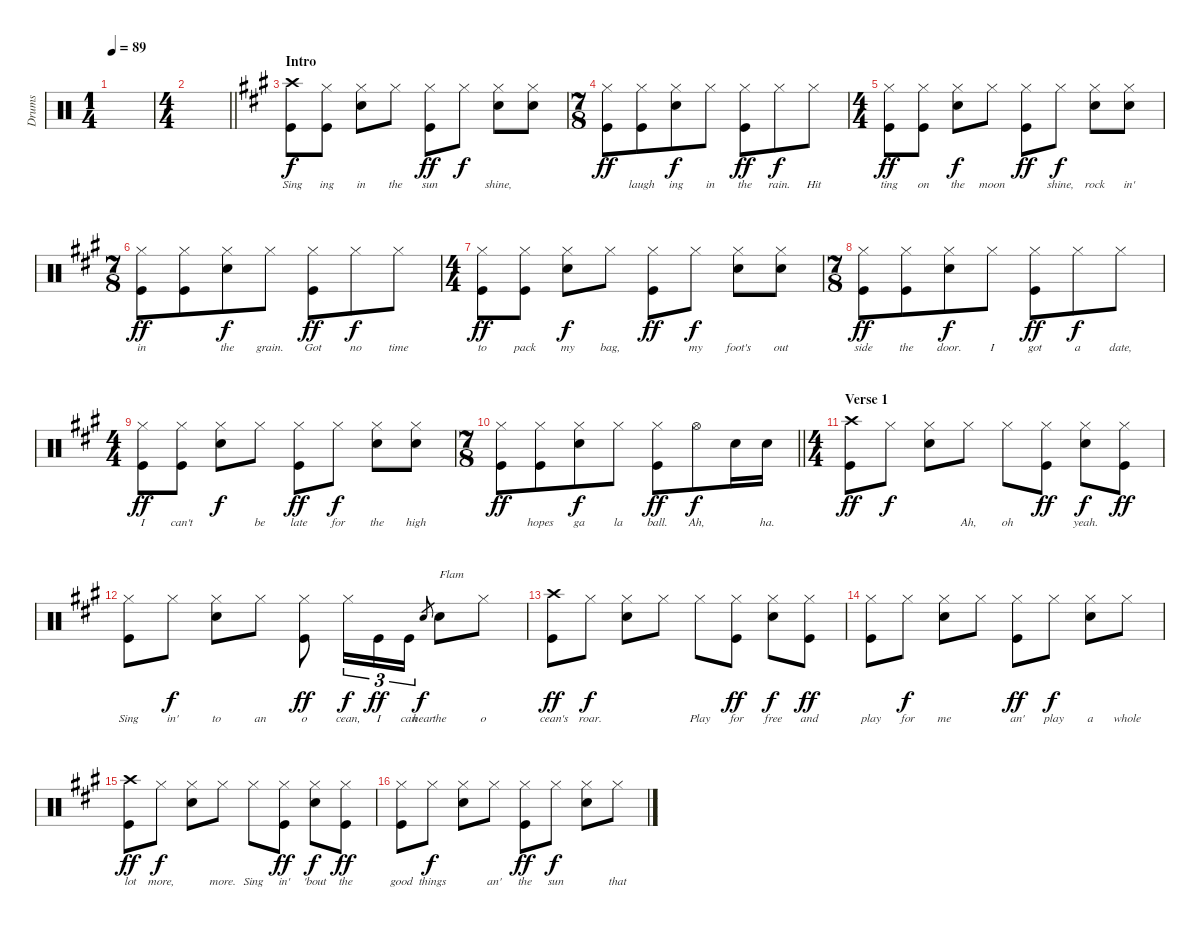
\track ("Drums" "Drums") {instrument percussion}
\staff {score}
\articulation defaults
\ts (1 4)
\tempo 89
\clef neutral
\ks c
|
\ts (4 4)
\barLineRight lightlight
|
\section ("" "Intro")
\ks a
("Crash high (hit)" "Kick (hit)").8{lyrics (0 "Sing") lyrics (1 "") lyrics (2 "") lyrics (3 "") lyrics (4 "")} ("Hi-Hat (closed)" "Kick (hit)").8{lyrics (0 "ing") lyrics (1 "") lyrics (2 "") lyrics (3 "") lyrics (4 "")} ("Hi-Hat (closed)" "Snare (hit) 2").8{lyrics (0 "in") lyrics (1 "") lyrics (2 "") lyrics (3 "") lyrics (4 "") dy f} "Hi-Hat (closed)".8{lyrics (0 "the") lyrics (1 "") lyrics (2 "") lyrics (3 "") lyrics (4 "")} ("Hi-Hat (closed)" "Kick (hit)").8{lyrics (0 "sun") lyrics (1 "") lyrics (2 "") lyrics (3 "") lyrics (4 "") dy ff} "Hi-Hat (closed)".8{lyrics (0 "") lyrics (1 "") lyrics (2 "") lyrics (3 "") lyrics (4 "") dy f} ("Hi-Hat (closed)" "Snare (hit) 2").8{lyrics (0 "shine,") lyrics (1 "") lyrics (2 "") lyrics (3 "") lyrics (4 "")} ("Hi-Hat (closed)" "Snare (hit) 2").8{lyrics (0 "") lyrics (1 "") lyrics (2 "") lyrics (3 "") lyrics (4 "")} |
\ts (7 8)
("Hi-Hat (closed)" "Kick (hit)").8{lyrics (0 "") lyrics (1 "") lyrics (2 "") lyrics (3 "") lyrics (4 "") dy ff} ("Hi-Hat (closed)" "Kick (hit)").8{lyrics (0 "laugh") lyrics (1 "") lyrics (2 "") lyrics (3 "") lyrics (4 "")} ("Hi-Hat (closed)" "Snare (hit) 2").8{lyrics (0 "ing") lyrics (1 "") lyrics (2 "") lyrics (3 "") lyrics (4 "") dy f} "Hi-Hat (closed)".8{lyrics (0 "in") lyrics (1 "") lyrics (2 "") lyrics (3 "") lyrics (4 "")} ("Hi-Hat (closed)" "Kick (hit)").8{lyrics (0 "the") lyrics (1 "") lyrics (2 "") lyrics (3 "") lyrics (4 "") dy ff} "Hi-Hat (closed)".8{lyrics (0 "rain.") lyrics (1 "") lyrics (2 "") lyrics (3 "") lyrics (4 "") dy f} "Hi-Hat (closed)".8{lyrics (0 "Hit") lyrics (1 "") lyrics (2 "") lyrics (3 "") lyrics (4 "")} |
\ts (4 4)
("Hi-Hat (closed)" "Kick (hit)").8{lyrics (0 "ting") lyrics (1 "") lyrics (2 "") lyrics (3 "") lyrics (4 "") dy ff} ("Hi-Hat (closed)" "Kick (hit)").8{lyrics (0 "on") lyrics (1 "") lyrics (2 "") lyrics (3 "") lyrics (4 "")} ("Hi-Hat (closed)" "Snare (hit) 2").8{lyrics (0 "the") lyrics (1 "") lyrics (2 "") lyrics (3 "") lyrics (4 "") dy f} "Hi-Hat (closed)".8{lyrics (0 "moon") lyrics (1 "") lyrics (2 "") lyrics (3 "") lyrics (4 "")} ("Hi-Hat (closed)" "Kick (hit)").8{lyrics (0 "") lyrics (1 "") lyrics (2 "") lyrics (3 "") lyrics (4 "") dy ff} "Hi-Hat (closed)".8{lyrics (0 "shine,") lyrics (1 "") lyrics (2 "") lyrics (3 "") lyrics (4 "") dy f} ("Hi-Hat (closed)" "Snare (hit) 2").8{lyrics (0 "rock") lyrics (1 "") lyrics (2 "") lyrics (3 "") lyrics (4 "")} ("Hi-Hat (closed)" "Snare (hit) 2").8{lyrics (0 "in'") lyrics (1 "") lyrics (2 "") lyrics (3 "") lyrics (4 "")} |
\ts (7 8)
("Hi-Hat (closed)" "Kick (hit)").8{lyrics (0 "in") lyrics (1 "") lyrics (2 "") lyrics (3 "") lyrics (4 "") dy ff} ("Hi-Hat (closed)" "Kick (hit)").8{lyrics (0 "") lyrics (1 "") lyrics (2 "") lyrics (3 "") lyrics (4 "")} ("Hi-Hat (closed)" "Snare (hit) 2").8{lyrics (0 "the") lyrics (1 "") lyrics (2 "") lyrics (3 "") lyrics (4 "") dy f} "Hi-Hat (closed)".8{lyrics (0 "grain.") lyrics (1 "") lyrics (2 "") lyrics (3 "") lyrics (4 "")} ("Hi-Hat (closed)" "Kick (hit)").8{lyrics (0 "Got") lyrics (1 "") lyrics (2 "") lyrics (3 "") lyrics (4 "") dy ff} "Hi-Hat (closed)".8{lyrics (0 "no") lyrics (1 "") lyrics (2 "") lyrics (3 "") lyrics (4 "") dy f} "Hi-Hat (closed)".8{lyrics (0 "time") lyrics (1 "") lyrics (2 "") lyrics (3 "") lyrics (4 "")} |
\ts (4 4)
("Hi-Hat (closed)" "Kick (hit)").8{lyrics (0 "to") lyrics (1 "") lyrics (2 "") lyrics (3 "") lyrics (4 "") dy ff} ("Hi-Hat (closed)" "Kick (hit)").8{lyrics (0 "pack") lyrics (1 "") lyrics (2 "") lyrics (3 "") lyrics (4 "")} ("Hi-Hat (closed)" "Snare (hit) 2").8{lyrics (0 "my") lyrics (1 "") lyrics (2 "") lyrics (3 "") lyrics (4 "") dy f} "Hi-Hat (closed)".8{lyrics (0 "bag,") lyrics (1 "") lyrics (2 "") lyrics (3 "") lyrics (4 "")} ("Hi-Hat (closed)" "Kick (hit)").8{lyrics (0 "") lyrics (1 "") lyrics (2 "") lyrics (3 "") lyrics (4 "") dy ff} "Hi-Hat (closed)".8{lyrics (0 "my") lyrics (1 "") lyrics (2 "") lyrics (3 "") lyrics (4 "") dy f} ("Hi-Hat (closed)" "Snare (hit) 2").8{lyrics (0 "foot's") lyrics (1 "") lyrics (2 "") lyrics (3 "") lyrics (4 "")} ("Hi-Hat (closed)" "Snare (hit) 2").8{lyrics (0 "out") lyrics (1 "") lyrics (2 "") lyrics (3 "") lyrics (4 "")} |
\ts (7 8)
("Hi-Hat (closed)" "Kick (hit)").8{lyrics (0 "side") lyrics (1 "") lyrics (2 "") lyrics (3 "") lyrics (4 "") dy ff} ("Hi-Hat (closed)" "Kick (hit)").8{lyrics (0 "the") lyrics (1 "") lyrics (2 "") lyrics (3 "") lyrics (4 "")} ("Hi-Hat (closed)" "Snare (hit) 2").8{lyrics (0 "door.") lyrics (1 "") lyrics (2 "") lyrics (3 "") lyrics (4 "") dy f} "Hi-Hat (closed)".8{lyrics (0 "I") lyrics (1 "") lyrics (2 "") lyrics (3 "") lyrics (4 "")} ("Hi-Hat (closed)" "Kick (hit)").8{lyrics (0 "got") lyrics (1 "") lyrics (2 "") lyrics (3 "") lyrics (4 "") dy ff} "Hi-Hat (closed)".8{lyrics (0 "a") lyrics (1 "") lyrics (2 "") lyrics (3 "") lyrics (4 "") dy f} "Hi-Hat (closed)".8{lyrics (0 "date,") lyrics (1 "") lyrics (2 "") lyrics (3 "") lyrics (4 "")} |
\ts (4 4)
("Hi-Hat (closed)" "Kick (hit)").8{lyrics (0 "I") lyrics (1 "") lyrics (2 "") lyrics (3 "") lyrics (4 "") dy ff} ("Hi-Hat (closed)" "Kick (hit)").8{lyrics (0 "can't") lyrics (1 "") lyrics (2 "") lyrics (3 "") lyrics (4 "")} ("Hi-Hat (closed)" "Snare (hit) 2").8{lyrics (0 "") lyrics (1 "") lyrics (2 "") lyrics (3 "") lyrics (4 "") dy f} "Hi-Hat (closed)".8{lyrics (0 "be") lyrics (1 "") lyrics (2 "") lyrics (3 "") lyrics (4 "")} ("Hi-Hat (closed)" "Kick (hit)").8{lyrics (0 "late") lyrics (1 "") lyrics (2 "") lyrics (3 "") lyrics (4 "") dy ff} "Hi-Hat (closed)".8{lyrics (0 "for") lyrics (1 "") lyrics (2 "") lyrics (3 "") lyrics (4 "") dy f} ("Hi-Hat (closed)" "Snare (hit) 2").8{lyrics (0 "the") lyrics (1 "") lyrics (2 "") lyrics (3 "") lyrics (4 "")} ("Hi-Hat (closed)" "Snare (hit) 2").8{lyrics (0 "high") lyrics (1 "") lyrics (2 "") lyrics (3 "") lyrics (4 "")} |
\ts (7 8)
\barLineRight lightlight
("Hi-Hat (closed)" "Kick (hit)").8{lyrics (0 "") lyrics (1 "") lyrics (2 "") lyrics (3 "") lyrics (4 "") dy ff} ("Hi-Hat (closed)" "Kick (hit)").8{lyrics (0 "hopes") lyrics (1 "") lyrics (2 "") lyrics (3 "") lyrics (4 "")} ("Hi-Hat (closed)" "Snare (hit) 2").8{lyrics (0 "ga") lyrics (1 "") lyrics (2 "") lyrics (3 "") lyrics (4 "") dy f} "Hi-Hat (closed)".8{lyrics (0 "la") lyrics (1 "") lyrics (2 "") lyrics (3 "") lyrics (4 "")} ("Hi-Hat (closed)" "Kick (hit)").8{lyrics (0 "ball.") lyrics (1 "") lyrics (2 "") lyrics (3 "") lyrics (4 "") dy ff} "Hi-Hat (open)".8{lyrics (0 "Ah,") lyrics (1 "") lyrics (2 "") lyrics (3 "") lyrics (4 "") dy f} "Snare (hit) 2".16{lyrics (0 "") lyrics (1 "") lyrics (2 "") lyrics (3 "") lyrics (4 "")} "Snare (hit) 2".16{lyrics (0 "ha.") lyrics (1 "") lyrics (2 "") lyrics (3 "") lyrics (4 "")} |
\ts (4 4)
\section ("" "Verse 1")
("Crash high (hit)" "Kick (hit)").8{lyrics (0 "") lyrics (1 "") lyrics (2 "") lyrics (3 "") lyrics (4 "") dy ff} "Hi-Hat (closed)".8{lyrics (0 "") lyrics (1 "") lyrics (2 "") lyrics (3 "") lyrics (4 "") dy f} ("Hi-Hat (closed)" "Snare (hit) 2").8{lyrics (0 "") lyrics (1 "") lyrics (2 "") lyrics (3 "") lyrics (4 "")} "Hi-Hat (closed)".8{lyrics (0 "Ah,") lyrics (1 "") lyrics (2 "") lyrics (3 "") lyrics (4 "")} "Hi-Hat (closed)".8{lyrics (0 "oh") lyrics (1 "") lyrics (2 "") lyrics (3 "") lyrics (4 "")} ("Hi-Hat (closed)" "Kick (hit)").8{lyrics (0 "") lyrics (1 "") lyrics (2 "") lyrics (3 "") lyrics (4 "") dy ff} ("Hi-Hat (closed)" "Snare (hit) 2").8{lyrics (0 "yeah.") lyrics (1 "") lyrics (2 "") lyrics (3 "") lyrics (4 "") dy f} ("Hi-Hat (closed)" "Kick (hit)").8{lyrics (0 "") lyrics (1 "") lyrics (2 "") lyrics (3 "") lyrics (4 "") dy ff} |
("Hi-Hat (closed)" "Kick (hit)").8{lyrics (0 "Sing") lyrics (1 "") lyrics (2 "") lyrics (3 "") lyrics (4 "")} "Hi-Hat (closed)".8{lyrics (0 "in'") lyrics (1 "") lyrics (2 "") lyrics (3 "") lyrics (4 "") dy f} ("Hi-Hat (closed)" "Snare (hit) 2").8{lyrics (0 "to") lyrics (1 "") lyrics (2 "") lyrics (3 "") lyrics (4 "")} "Hi-Hat (closed)".8{lyrics (0 "an") lyrics (1 "") lyrics (2 "") lyrics (3 "") lyrics (4 "")} ("Hi-Hat (closed)" "Kick (hit)").8{lyrics (0 "o") lyrics (1 "") lyrics (2 "") lyrics (3 "") lyrics (4 "") dy ff} "Hi-Hat (closed)".16{tu (3 2) lyrics (0 "cean,") lyrics (1 "") lyrics (2 "") lyrics (3 "") lyrics (4 "") dy f} "Kick (hit)".16{tu (3 2) lyrics (0 "I") lyrics (1 "") lyrics (2 "") lyrics (3 "") lyrics (4 "") dy ff} "Kick (hit)".16{tu (3 2) lyrics (0 "can") lyrics (1 "") lyrics (2 "") lyrics (3 "") lyrics (4 "")} "Snare (hit) 2".8{lyrics (0 "hear") lyrics (1 "") lyrics (2 "") lyrics (3 "") lyrics (4 "") gr dy f} "Snare (hit) 2".8{txt "Flam" lyrics (0 "the") lyrics (1 "") lyrics (2 "") lyrics (3 "") lyrics (4 "")} "Hi-Hat (closed)".8{lyrics (0 "o") lyrics (1 "") lyrics (2 "") lyrics (3 "") lyrics (4 "")} |
("Crash high (hit)" "Kick (hit)").8{lyrics (0 "cean's") lyrics (1 "") lyrics (2 "") lyrics (3 "") lyrics (4 "") dy ff} "Hi-Hat (closed)".8{lyrics (0 "roar.") lyrics (1 "") lyrics (2 "") lyrics (3 "") lyrics (4 "") dy f} ("Hi-Hat (closed)" "Snare (hit) 2").8{lyrics (0 "") lyrics (1 "") lyrics (2 "") lyrics (3 "") lyrics (4 "")} "Hi-Hat (closed)".8{lyrics (0 "") lyrics (1 "") lyrics (2 "") lyrics (3 "") lyrics (4 "")} "Hi-Hat (closed)".8{lyrics (0 "Play") lyrics (1 "") lyrics (2 "") lyrics (3 "") lyrics (4 "")} ("Hi-Hat (closed)" "Kick (hit)").8{lyrics (0 "for") lyrics (1 "") lyrics (2 "") lyrics (3 "") lyrics (4 "") dy ff} ("Hi-Hat (closed)" "Snare (hit) 2").8{lyrics (0 "free") lyrics (1 "") lyrics (2 "") lyrics (3 "") lyrics (4 "") dy f} ("Hi-Hat (closed)" "Kick (hit)").8{lyrics (0 "and") lyrics (1 "") lyrics (2 "") lyrics (3 "") lyrics (4 "") dy ff} |
("Hi-Hat (closed)" "Kick (hit)").8{lyrics (0 "play") lyrics (1 "") lyrics (2 "") lyrics (3 "") lyrics (4 "")} "Hi-Hat (closed)".8{lyrics (0 "for") lyrics (1 "") lyrics (2 "") lyrics (3 "") lyrics (4 "") dy f} ("Hi-Hat (closed)" "Snare (hit) 2").8{lyrics (0 "me") lyrics (1 "") lyrics (2 "") lyrics (3 "") lyrics (4 "")} "Hi-Hat (closed)".8{lyrics (0 "") lyrics (1 "") lyrics (2 "") lyrics (3 "") lyrics (4 "")} ("Hi-Hat (closed)" "Kick (hit)").8{lyrics (0 "an'") lyrics (1 "") lyrics (2 "") lyrics (3 "") lyrics (4 "") dy ff} "Hi-Hat (closed)".8{lyrics (0 "play") lyrics (1 "") lyrics (2 "") lyrics (3 "") lyrics (4 "") dy f} ("Hi-Hat (closed)" "Snare (hit) 2").8{lyrics (0 "a") lyrics (1 "") lyrics (2 "") lyrics (3 "") lyrics (4 "")} "Hi-Hat (closed)".8{lyrics (0 "whole") lyrics (1 "") lyrics (2 "") lyrics (3 "") lyrics (4 "")} |
("Crash high (hit)" "Kick (hit)").8{lyrics (0 "lot") lyrics (1 "") lyrics (2 "") lyrics (3 "") lyrics (4 "") dy ff} "Hi-Hat (closed)".8{lyrics (0 "more,") lyrics (1 "") lyrics (2 "") lyrics (3 "") lyrics (4 "") dy f} ("Hi-Hat (closed)" "Snare (hit) 2").8{lyrics (0 "") lyrics (1 "") lyrics (2 "") lyrics (3 "") lyrics (4 "")} "Hi-Hat (closed)".8{lyrics (0 "more.") lyrics (1 "") lyrics (2 "") lyrics (3 "") lyrics (4 "")} "Hi-Hat (closed)".8{lyrics (0 "Sing") lyrics (1 "") lyrics (2 "") lyrics (3 "") lyrics (4 "")} ("Hi-Hat (closed)" "Kick (hit)").8{lyrics (0 "in'") lyrics (1 "") lyrics (2 "") lyrics (3 "") lyrics (4 "") dy ff} ("Hi-Hat (closed)" "Snare (hit) 2").8{lyrics (0 "'bout") lyrics (1 "") lyrics (2 "") lyrics (3 "") lyrics (4 "") dy f} ("Hi-Hat (closed)" "Kick (hit)").8{lyrics (0 "the") lyrics (1 "") lyrics (2 "") lyrics (3 "") lyrics (4 "") dy ff} |
("Hi-Hat (closed)" "Kick (hit)").8{lyrics (0 "good") lyrics (1 "") lyrics (2 "") lyrics (3 "") lyrics (4 "")} "Hi-Hat (closed)".8{lyrics (0 "things") lyrics (1 "") lyrics (2 "") lyrics (3 "") lyrics (4 "") dy f} ("Hi-Hat (closed)" "Snare (hit) 2").8{lyrics (0 "") lyrics (1 "") lyrics (2 "") lyrics (3 "") lyrics (4 "")} "Hi-Hat (closed)".8{lyrics (0 "an'") lyrics (1 "") lyrics (2 "") lyrics (3 "") lyrics (4 "")} ("Hi-Hat (closed)" "Kick (hit)").8{lyrics (0 "the") lyrics (1 "") lyrics (2 "") lyrics (3 "") lyrics (4 "") dy ff} "Hi-Hat (closed)".8{lyrics (0 "sun") lyrics (1 "") lyrics (2 "") lyrics (3 "") lyrics (4 "") dy f} ("Hi-Hat (closed)" "Snare (hit) 2").8{lyrics (0 "") lyrics (1 "") lyrics (2 "") lyrics (3 "") lyrics (4 "")} "Hi-Hat (closed)".8{lyrics (0 "that") lyrics (1 "") lyrics (2 "") lyrics (3 "") lyrics (4 "")}
